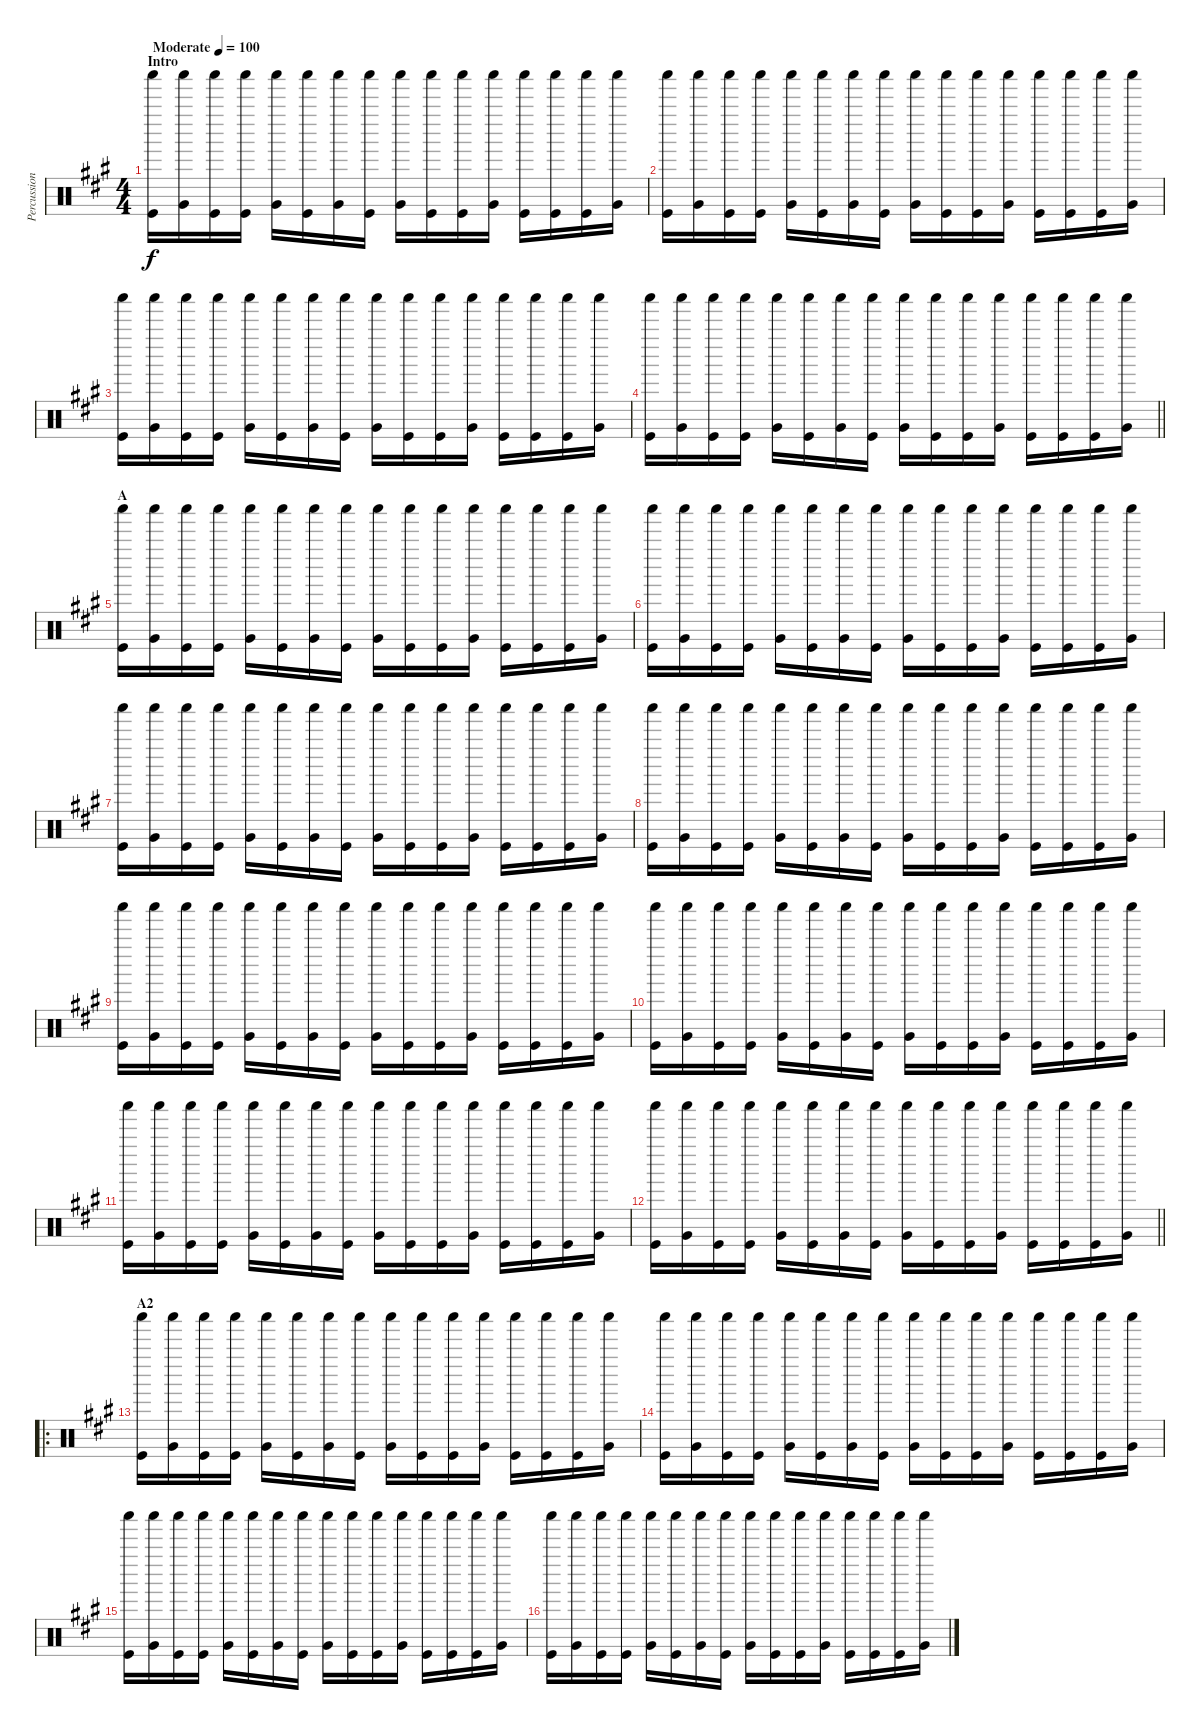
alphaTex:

\track ("Percussion" "Percussion") {instrument percussion}
\staff {score}
\articulation defaults
\ts (4 4)
\section ("" "Intro")
\tempo (100 "Moderate")
\clef neutral
\ks a
("Shaker (hit)" "Kick (hit)").16{dy f} ("Shaker (hit)" "Very Low Tom (hit)").16 ("Shaker (hit)" "Kick (hit)").16 ("Shaker (hit)" "Kick (hit)").16 ("Shaker (hit)" "Very Low Tom (hit)").16 ("Shaker (hit)" "Kick (hit)").16 ("Shaker (hit)" "Very Low Tom (hit)").16 ("Shaker (hit)" "Kick (hit)").16 ("Shaker (hit)" "Very Low Tom (hit)").16 ("Shaker (hit)" "Kick (hit)").16 ("Shaker (hit)" "Kick (hit)").16 ("Shaker (hit)" "Very Low Tom (hit)").16 ("Shaker (hit)" "Kick (hit)").16 ("Shaker (hit)" "Kick (hit)").16 ("Shaker (hit)" "Kick (hit)").16 ("Shaker (hit)" "Very Low Tom (hit)").16 |
("Shaker (hit)" "Kick (hit)").16 ("Shaker (hit)" "Very Low Tom (hit)").16 ("Shaker (hit)" "Kick (hit)").16 ("Shaker (hit)" "Kick (hit)").16 ("Shaker (hit)" "Very Low Tom (hit)").16 ("Shaker (hit)" "Kick (hit)").16 ("Shaker (hit)" "Very Low Tom (hit)").16 ("Shaker (hit)" "Kick (hit)").16 ("Shaker (hit)" "Very Low Tom (hit)").16 ("Shaker (hit)" "Kick (hit)").16 ("Shaker (hit)" "Kick (hit)").16 ("Shaker (hit)" "Very Low Tom (hit)").16 ("Shaker (hit)" "Kick (hit)").16 ("Shaker (hit)" "Kick (hit)").16 ("Shaker (hit)" "Kick (hit)").16 ("Shaker (hit)" "Very Low Tom (hit)").16 |
("Shaker (hit)" "Kick (hit)").16 ("Shaker (hit)" "Very Low Tom (hit)").16 ("Shaker (hit)" "Kick (hit)").16 ("Shaker (hit)" "Kick (hit)").16 ("Shaker (hit)" "Very Low Tom (hit)").16 ("Shaker (hit)" "Kick (hit)").16 ("Shaker (hit)" "Very Low Tom (hit)").16 ("Shaker (hit)" "Kick (hit)").16 ("Shaker (hit)" "Very Low Tom (hit)").16 ("Shaker (hit)" "Kick (hit)").16 ("Shaker (hit)" "Kick (hit)").16 ("Shaker (hit)" "Very Low Tom (hit)").16 ("Shaker (hit)" "Kick (hit)").16 ("Shaker (hit)" "Kick (hit)").16 ("Shaker (hit)" "Kick (hit)").16 ("Shaker (hit)" "Very Low Tom (hit)").16 |
\barLineRight lightlight
("Shaker (hit)" "Kick (hit)").16 ("Shaker (hit)" "Very Low Tom (hit)").16 ("Shaker (hit)" "Kick (hit)").16 ("Shaker (hit)" "Kick (hit)").16 ("Shaker (hit)" "Very Low Tom (hit)").16 ("Shaker (hit)" "Kick (hit)").16 ("Shaker (hit)" "Very Low Tom (hit)").16 ("Shaker (hit)" "Kick (hit)").16 ("Shaker (hit)" "Very Low Tom (hit)").16 ("Shaker (hit)" "Kick (hit)").16 ("Shaker (hit)" "Kick (hit)").16 ("Shaker (hit)" "Very Low Tom (hit)").16 ("Shaker (hit)" "Kick (hit)").16 ("Shaker (hit)" "Kick (hit)").16 ("Shaker (hit)" "Kick (hit)").16 ("Shaker (hit)" "Very Low Tom (hit)").16 |
\section ("" "A")
("Shaker (hit)" "Kick (hit)").16 ("Shaker (hit)" "Very Low Tom (hit)").16 ("Shaker (hit)" "Kick (hit)").16 ("Shaker (hit)" "Kick (hit)").16 ("Shaker (hit)" "Very Low Tom (hit)").16 ("Shaker (hit)" "Kick (hit)").16 ("Shaker (hit)" "Very Low Tom (hit)").16 ("Shaker (hit)" "Kick (hit)").16 ("Shaker (hit)" "Very Low Tom (hit)").16 ("Shaker (hit)" "Kick (hit)").16 ("Shaker (hit)" "Kick (hit)").16 ("Shaker (hit)" "Very Low Tom (hit)").16 ("Shaker (hit)" "Kick (hit)").16 ("Shaker (hit)" "Kick (hit)").16 ("Shaker (hit)" "Kick (hit)").16 ("Shaker (hit)" "Very Low Tom (hit)").16 |
("Shaker (hit)" "Kick (hit)").16 ("Shaker (hit)" "Very Low Tom (hit)").16 ("Shaker (hit)" "Kick (hit)").16 ("Shaker (hit)" "Kick (hit)").16 ("Shaker (hit)" "Very Low Tom (hit)").16 ("Shaker (hit)" "Kick (hit)").16 ("Shaker (hit)" "Very Low Tom (hit)").16 ("Shaker (hit)" "Kick (hit)").16 ("Shaker (hit)" "Very Low Tom (hit)").16 ("Shaker (hit)" "Kick (hit)").16 ("Shaker (hit)" "Kick (hit)").16 ("Shaker (hit)" "Very Low Tom (hit)").16 ("Shaker (hit)" "Kick (hit)").16 ("Shaker (hit)" "Kick (hit)").16 ("Shaker (hit)" "Kick (hit)").16 ("Shaker (hit)" "Very Low Tom (hit)").16 |
("Shaker (hit)" "Kick (hit)").16 ("Shaker (hit)" "Very Low Tom (hit)").16 ("Shaker (hit)" "Kick (hit)").16 ("Shaker (hit)" "Kick (hit)").16 ("Shaker (hit)" "Very Low Tom (hit)").16 ("Shaker (hit)" "Kick (hit)").16 ("Shaker (hit)" "Very Low Tom (hit)").16 ("Shaker (hit)" "Kick (hit)").16 ("Shaker (hit)" "Very Low Tom (hit)").16 ("Shaker (hit)" "Kick (hit)").16 ("Shaker (hit)" "Kick (hit)").16 ("Shaker (hit)" "Very Low Tom (hit)").16 ("Shaker (hit)" "Kick (hit)").16 ("Shaker (hit)" "Kick (hit)").16 ("Shaker (hit)" "Kick (hit)").16 ("Shaker (hit)" "Very Low Tom (hit)").16 |
("Shaker (hit)" "Kick (hit)").16 ("Shaker (hit)" "Very Low Tom (hit)").16 ("Shaker (hit)" "Kick (hit)").16 ("Shaker (hit)" "Kick (hit)").16 ("Shaker (hit)" "Very Low Tom (hit)").16 ("Shaker (hit)" "Kick (hit)").16 ("Shaker (hit)" "Very Low Tom (hit)").16 ("Shaker (hit)" "Kick (hit)").16 ("Shaker (hit)" "Very Low Tom (hit)").16 ("Shaker (hit)" "Kick (hit)").16 ("Shaker (hit)" "Kick (hit)").16 ("Shaker (hit)" "Very Low Tom (hit)").16 ("Shaker (hit)" "Kick (hit)").16 ("Shaker (hit)" "Kick (hit)").16 ("Shaker (hit)" "Kick (hit)").16 ("Shaker (hit)" "Very Low Tom (hit)").16 |
("Shaker (hit)" "Kick (hit)").16 ("Shaker (hit)" "Very Low Tom (hit)").16 ("Shaker (hit)" "Kick (hit)").16 ("Shaker (hit)" "Kick (hit)").16 ("Shaker (hit)" "Very Low Tom (hit)").16 ("Shaker (hit)" "Kick (hit)").16 ("Shaker (hit)" "Very Low Tom (hit)").16 ("Shaker (hit)" "Kick (hit)").16 ("Shaker (hit)" "Very Low Tom (hit)").16 ("Shaker (hit)" "Kick (hit)").16 ("Shaker (hit)" "Kick (hit)").16 ("Shaker (hit)" "Very Low Tom (hit)").16 ("Shaker (hit)" "Kick (hit)").16 ("Shaker (hit)" "Kick (hit)").16 ("Shaker (hit)" "Kick (hit)").16 ("Shaker (hit)" "Very Low Tom (hit)").16 |
("Shaker (hit)" "Kick (hit)").16 ("Shaker (hit)" "Very Low Tom (hit)").16 ("Shaker (hit)" "Kick (hit)").16 ("Shaker (hit)" "Kick (hit)").16 ("Shaker (hit)" "Very Low Tom (hit)").16 ("Shaker (hit)" "Kick (hit)").16 ("Shaker (hit)" "Very Low Tom (hit)").16 ("Shaker (hit)" "Kick (hit)").16 ("Shaker (hit)" "Very Low Tom (hit)").16 ("Shaker (hit)" "Kick (hit)").16 ("Shaker (hit)" "Kick (hit)").16 ("Shaker (hit)" "Very Low Tom (hit)").16 ("Shaker (hit)" "Kick (hit)").16 ("Shaker (hit)" "Kick (hit)").16 ("Shaker (hit)" "Kick (hit)").16 ("Shaker (hit)" "Very Low Tom (hit)").16 |
("Shaker (hit)" "Kick (hit)").16 ("Shaker (hit)" "Very Low Tom (hit)").16 ("Shaker (hit)" "Kick (hit)").16 ("Shaker (hit)" "Kick (hit)").16 ("Shaker (hit)" "Very Low Tom (hit)").16 ("Shaker (hit)" "Kick (hit)").16 ("Shaker (hit)" "Very Low Tom (hit)").16 ("Shaker (hit)" "Kick (hit)").16 ("Shaker (hit)" "Very Low Tom (hit)").16 ("Shaker (hit)" "Kick (hit)").16 ("Shaker (hit)" "Kick (hit)").16 ("Shaker (hit)" "Very Low Tom (hit)").16 ("Shaker (hit)" "Kick (hit)").16 ("Shaker (hit)" "Kick (hit)").16 ("Shaker (hit)" "Kick (hit)").16 ("Shaker (hit)" "Very Low Tom (hit)").16 |
\barLineRight lightlight
("Shaker (hit)" "Kick (hit)").16 ("Shaker (hit)" "Very Low Tom (hit)").16 ("Shaker (hit)" "Kick (hit)").16 ("Shaker (hit)" "Kick (hit)").16 ("Shaker (hit)" "Very Low Tom (hit)").16 ("Shaker (hit)" "Kick (hit)").16 ("Shaker (hit)" "Very Low Tom (hit)").16 ("Shaker (hit)" "Kick (hit)").16 ("Shaker (hit)" "Very Low Tom (hit)").16 ("Shaker (hit)" "Kick (hit)").16 ("Shaker (hit)" "Kick (hit)").16 ("Shaker (hit)" "Very Low Tom (hit)").16 ("Shaker (hit)" "Kick (hit)").16 ("Shaker (hit)" "Kick (hit)").16 ("Shaker (hit)" "Kick (hit)").16 ("Shaker (hit)" "Very Low Tom (hit)").16 |
\ro
\section ("" "A2")
("Shaker (hit)" "Kick (hit)").16 ("Shaker (hit)" "Very Low Tom (hit)").16 ("Shaker (hit)" "Kick (hit)").16 ("Shaker (hit)" "Kick (hit)").16 ("Shaker (hit)" "Very Low Tom (hit)").16 ("Shaker (hit)" "Kick (hit)").16 ("Shaker (hit)" "Very Low Tom (hit)").16 ("Shaker (hit)" "Kick (hit)").16 ("Shaker (hit)" "Very Low Tom (hit)").16 ("Shaker (hit)" "Kick (hit)").16 ("Shaker (hit)" "Kick (hit)").16 ("Shaker (hit)" "Very Low Tom (hit)").16 ("Shaker (hit)" "Kick (hit)").16 ("Shaker (hit)" "Kick (hit)").16 ("Shaker (hit)" "Kick (hit)").16 ("Shaker (hit)" "Very Low Tom (hit)").16 |
("Shaker (hit)" "Kick (hit)").16 ("Shaker (hit)" "Very Low Tom (hit)").16 ("Shaker (hit)" "Kick (hit)").16 ("Shaker (hit)" "Kick (hit)").16 ("Shaker (hit)" "Very Low Tom (hit)").16 ("Shaker (hit)" "Kick (hit)").16 ("Shaker (hit)" "Very Low Tom (hit)").16 ("Shaker (hit)" "Kick (hit)").16 ("Shaker (hit)" "Very Low Tom (hit)").16 ("Shaker (hit)" "Kick (hit)").16 ("Shaker (hit)" "Kick (hit)").16 ("Shaker (hit)" "Very Low Tom (hit)").16 ("Shaker (hit)" "Kick (hit)").16 ("Shaker (hit)" "Kick (hit)").16 ("Shaker (hit)" "Kick (hit)").16 ("Shaker (hit)" "Very Low Tom (hit)").16 |
("Shaker (hit)" "Kick (hit)").16 ("Shaker (hit)" "Very Low Tom (hit)").16 ("Shaker (hit)" "Kick (hit)").16 ("Shaker (hit)" "Kick (hit)").16 ("Shaker (hit)" "Very Low Tom (hit)").16 ("Shaker (hit)" "Kick (hit)").16 ("Shaker (hit)" "Very Low Tom (hit)").16 ("Shaker (hit)" "Kick (hit)").16 ("Shaker (hit)" "Very Low Tom (hit)").16 ("Shaker (hit)" "Kick (hit)").16 ("Shaker (hit)" "Kick (hit)").16 ("Shaker (hit)" "Very Low Tom (hit)").16 ("Shaker (hit)" "Kick (hit)").16 ("Shaker (hit)" "Kick (hit)").16 ("Shaker (hit)" "Kick (hit)").16 ("Shaker (hit)" "Very Low Tom (hit)").16 |
("Shaker (hit)" "Kick (hit)").16 ("Shaker (hit)" "Very Low Tom (hit)").16 ("Shaker (hit)" "Kick (hit)").16 ("Shaker (hit)" "Kick (hit)").16 ("Shaker (hit)" "Very Low Tom (hit)").16 ("Shaker (hit)" "Kick (hit)").16 ("Shaker (hit)" "Very Low Tom (hit)").16 ("Shaker (hit)" "Kick (hit)").16 ("Shaker (hit)" "Very Low Tom (hit)").16 ("Shaker (hit)" "Kick (hit)").16 ("Shaker (hit)" "Kick (hit)").16 ("Shaker (hit)" "Very Low Tom (hit)").16 ("Shaker (hit)" "Kick (hit)").16 ("Shaker (hit)" "Kick (hit)").16 ("Shaker (hit)" "Kick (hit)").16 ("Shaker (hit)" "Very Low Tom (hit)").16
